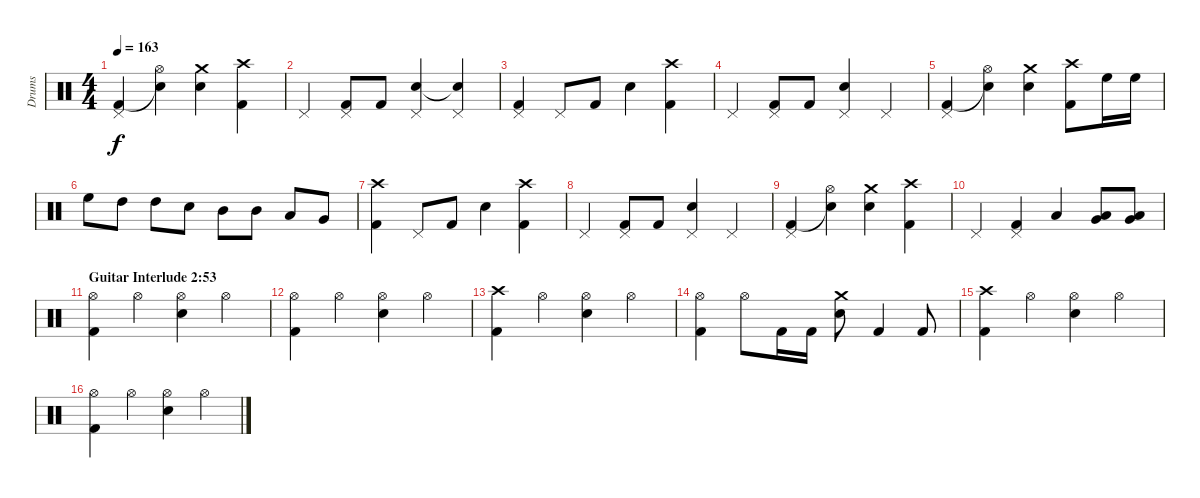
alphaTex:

\track ("Drums" "Drums") {instrument percussion}
\staff {score}
\articulation defaults
\ts (4 4)
\tempo 163
\clef neutral
\ks c
("Pedal Hi-Hat (hit)" "Kick (hit) 2").4{dy f} ("Hi-Hat (open)" "Snare (hit)"{t}).4 ("Crash medium (hit)" "Snare (hit) 2").4 ("Crash high (hit)" "Kick (hit) 2").4 |
"Pedal Hi-Hat (hit)".4 ("Pedal Hi-Hat (hit)" "Kick (hit) 2").8 "Kick (hit) 2".8 ("Pedal Hi-Hat (hit)" "Snare (hit) 2").4 ("Pedal Hi-Hat (hit)" "Snare (hit)"{t}).4 |
("Kick (hit) 2" "Pedal Hi-Hat (hit)").4 "Pedal Hi-Hat (hit)".8 "Kick (hit) 2".8 "Snare (hit) 2".4 ("Kick (hit) 2" "Crash high (hit)").4 |
"Pedal Hi-Hat (hit)".4 ("Pedal Hi-Hat (hit)" "Kick (hit) 2").8 "Kick (hit) 2".8 ("Pedal Hi-Hat (hit)" "Snare (hit) 2").4 "Pedal Hi-Hat (hit)".4 |
("Pedal Hi-Hat (hit)" "Kick (hit) 2").4 ("Hi-Hat (open)" "Snare (hit)"{t}).4 ("Crash medium (hit)" "Snare (hit) 2").4 ("Crash high (hit)" "Kick (hit) 2").8 "High Floor Tom (hit)".16 "High Floor Tom (hit)".16 |
"High Floor Tom (hit)".8 "High Tom (hit)".8 "High Tom (hit)".8 "Snare (hit) 2".8 "Mid Tom (hit)".8 "Mid Tom (hit)".8 "Low Tom (hit)".8 "Very Low Tom (hit)".8 |
("Kick (hit) 2" "Crash high (hit)").4 "Pedal Hi-Hat (hit)".8 "Kick (hit) 2".8 "Snare (hit) 2".4 ("Kick (hit) 2" "Crash high (hit)").4 |
"Pedal Hi-Hat (hit)".4 ("Pedal Hi-Hat (hit)" "Kick (hit) 2").8 "Kick (hit) 2".8 ("Pedal Hi-Hat (hit)" "Snare (hit) 2").4 "Pedal Hi-Hat (hit)".4 |
("Pedal Hi-Hat (hit)" "Kick (hit) 2").4 ("Hi-Hat (open)" "Snare (hit)"{t}).4 ("Crash medium (hit)" "Snare (hit) 2").4 ("Crash high (hit)" "Kick (hit) 2").4 |
"Pedal Hi-Hat (hit)".4 ("Pedal Hi-Hat (hit)" "Kick (hit) 2").4 "Low Tom (hit)".4 ("Low Tom (hit)" "Very Low Tom (hit)").8 ("Low Tom (hit)" "Very Low Tom (hit)").8 |
\section ("" "Guitar Interlude 2:53")
("Hi-Hat (open)" "Kick (hit) 2").4 "Hi-Hat (open)".4 ("Hi-Hat (open)" "Snare (hit) 2").4 "Hi-Hat (open)".4 |
("Hi-Hat (open)" "Kick (hit) 2").4 "Hi-Hat (open)".4 ("Hi-Hat (open)" "Snare (hit) 2").4 "Hi-Hat (open)".4 |
("Kick (hit) 2" "Crash high (hit)").4 "Hi-Hat (open)".4 ("Hi-Hat (open)" "Snare (hit) 2").4 "Hi-Hat (open)".4 |
("Hi-Hat (open)" "Kick (hit) 2").4 "Hi-Hat (open)".8 "Kick (hit) 2".16 "Kick (hit) 2".16 ("Crash medium (hit)" "Snare (hit) 2").8 "Kick (hit) 2".4 "Kick (hit) 2".8 |
("Kick (hit) 2" "Crash high (hit)").4 "Hi-Hat (open)".4 ("Hi-Hat (open)" "Snare (hit) 2").4 "Hi-Hat (open)".4 |
("Hi-Hat (open)" "Kick (hit) 2").4 "Hi-Hat (open)".4 ("Hi-Hat (open)" "Snare (hit) 2").4 "Hi-Hat (open)".4
